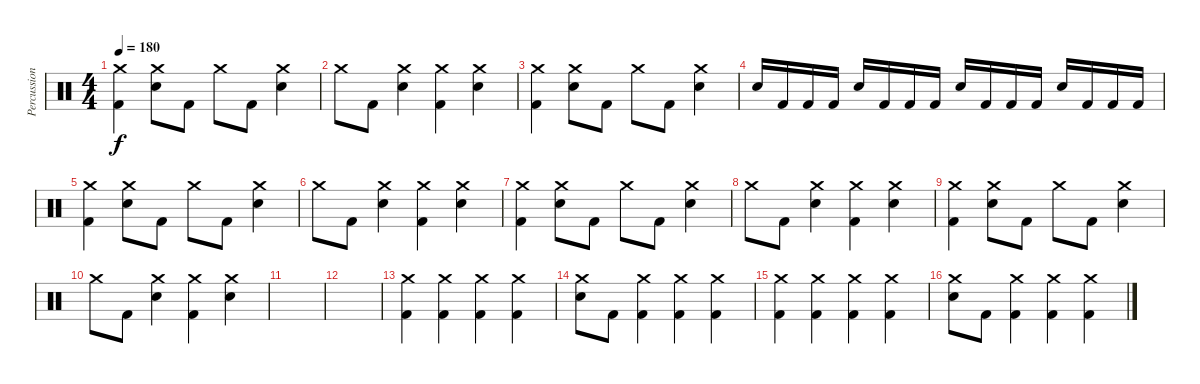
\track ("Percussion" "Percussion") {instrument percussion}
\staff {score}
\articulation defaults
\ts (4 4)
\tempo 180
\clef neutral
\ks c
("Kick (hit) 2" "Crash medium (hit)").4{dy f} ("Electric Snare (hit)" "Crash medium (hit)").8 "Kick (hit) 2".8 "Crash medium (hit)".8 "Kick (hit) 2".8 ("Electric Snare (hit)" "Crash medium (hit)").4 |
"Crash medium (hit)".8 "Kick (hit) 2".8 ("Electric Snare (hit)" "Crash medium (hit)").4 ("Kick (hit) 2" "Crash medium (hit)").4 ("Electric Snare (hit)" "Crash medium (hit)").4 |
("Kick (hit) 2" "Crash medium (hit)").4 ("Electric Snare (hit)" "Crash medium (hit)").8 "Kick (hit) 2".8 "Crash medium (hit)".8 "Kick (hit) 2".8 ("Electric Snare (hit)" "Crash medium (hit)").4 |
"Electric Snare (hit)".16 "Kick (hit) 2".16 "Kick (hit) 2".16 "Kick (hit) 2".16 "Electric Snare (hit)".16 "Kick (hit) 2".16 "Kick (hit) 2".16 "Kick (hit) 2".16 "Electric Snare (hit)".16 "Kick (hit) 2".16 "Kick (hit) 2".16 "Kick (hit) 2".16 "Electric Snare (hit)".16 "Kick (hit) 2".16 "Kick (hit) 2".16 "Kick (hit) 2".16 |
("Kick (hit) 2" "Crash medium (hit)").4 ("Electric Snare (hit)" "Crash medium (hit)").8 "Kick (hit) 2".8 "Crash medium (hit)".8 "Kick (hit) 2".8 ("Electric Snare (hit)" "Crash medium (hit)").4 |
"Crash medium (hit)".8 "Kick (hit) 2".8 ("Electric Snare (hit)" "Crash medium (hit)").4 ("Kick (hit) 2" "Crash medium (hit)").4 ("Electric Snare (hit)" "Crash medium (hit)").4 |
("Kick (hit) 2" "Crash medium (hit)").4 ("Electric Snare (hit)" "Crash medium (hit)").8 "Kick (hit) 2".8 "Crash medium (hit)".8 "Kick (hit) 2".8 ("Electric Snare (hit)" "Crash medium (hit)").4 |
"Crash medium (hit)".8 "Kick (hit) 2".8 ("Electric Snare (hit)" "Crash medium (hit)").4 ("Kick (hit) 2" "Crash medium (hit)").4 ("Electric Snare (hit)" "Crash medium (hit)").4 |
("Kick (hit) 2" "Crash medium (hit)").4 ("Electric Snare (hit)" "Crash medium (hit)").8 "Kick (hit) 2".8 "Crash medium (hit)".8 "Kick (hit) 2".8 ("Electric Snare (hit)" "Crash medium (hit)").4 |
"Crash medium (hit)".8 "Kick (hit) 2".8 ("Electric Snare (hit)" "Crash medium (hit)").4 ("Kick (hit) 2" "Crash medium (hit)").4 ("Electric Snare (hit)" "Crash medium (hit)").4 |
|
|
("Kick (hit) 2" "Crash medium (hit)").4 ("Kick (hit) 2" "Crash medium (hit)").4 ("Kick (hit) 2" "Crash medium (hit)").4 ("Kick (hit) 2" "Crash medium (hit)").4 |
("Electric Snare (hit)" "Crash medium (hit)").8 "Kick (hit) 2".8 ("Kick (hit) 2" "Crash medium (hit)").4 ("Kick (hit) 2" "Crash medium (hit)").4 ("Kick (hit) 2" "Crash medium (hit)").4 |
("Kick (hit) 2" "Crash medium (hit)").4 ("Kick (hit) 2" "Crash medium (hit)").4 ("Kick (hit) 2" "Crash medium (hit)").4 ("Kick (hit) 2" "Crash medium (hit)").4 |
("Electric Snare (hit)" "Crash medium (hit)").8 "Kick (hit) 2".8 ("Kick (hit) 2" "Crash medium (hit)").4 ("Kick (hit) 2" "Crash medium (hit)").4 ("Kick (hit) 2" "Crash medium (hit)").4
